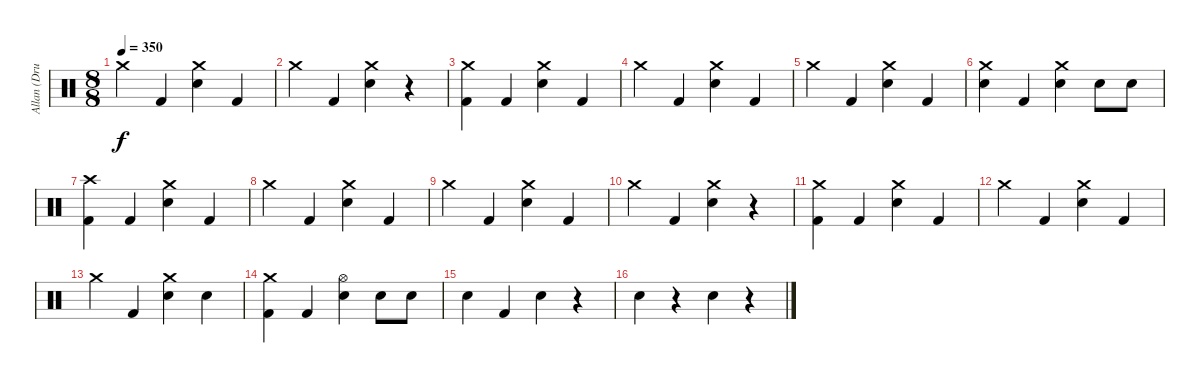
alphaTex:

\track ("Allan (Drums)" "Allan (Dru") {instrument percussion}
\staff {score}
\articulation defaults
\ts (8 8)
\tempo 350
\clef neutral
\ks c "Crash medium (hit)".4{dy f} "Kick (hit) 2".4
("Crash medium (hit)" "Snare (hit) 2").4 "Kick (hit) 2".4 |
"Crash medium (hit)".4 "Kick (hit) 2".4 ("Crash medium (hit)" "Snare (hit) 2").4 r.4 |
("Crash medium (hit)" "Kick (hit) 2").4 "Kick (hit) 2".4 ("Crash medium (hit)" "Snare (hit) 2").4 "Kick (hit) 2".4 |
"Crash medium (hit)".4 "Kick (hit) 2".4 ("Crash medium (hit)" "Snare (hit) 2").4 "Kick (hit) 2".4 |
"Crash medium (hit)".4 "Kick (hit) 2".4 ("Crash medium (hit)" "Snare (hit) 2").4 "Kick (hit) 2".4 |
("Crash medium (hit)" "Snare (hit) 2").4 "Kick (hit) 2".4 ("Crash medium (hit)" "Snare (hit) 2").4 "Snare (hit) 2".8 "Snare (hit) 2".8 |
("Crash high (hit)" "Kick (hit) 2").4 "Kick (hit) 2".4 ("Crash medium (hit)" "Snare (hit) 2").4 "Kick (hit) 2".4 |
"Crash medium (hit)".4 "Kick (hit) 2".4 ("Crash medium (hit)" "Snare (hit) 2").4 "Kick (hit) 2".4 |
"Crash medium (hit)".4 "Kick (hit) 2".4 ("Crash medium (hit)" "Snare (hit) 2").4 "Kick (hit) 2".4 |
"Crash medium (hit)".4 "Kick (hit) 2".4 ("Crash medium (hit)" "Snare (hit) 2").4 r.4 |
("Crash medium (hit)" "Kick (hit) 2").4 "Kick (hit) 2".4 ("Crash medium (hit)" "Snare (hit) 2").4 "Kick (hit) 2".4 |
"Crash medium (hit)".4 "Kick (hit) 2".4 ("Crash medium (hit)" "Snare (hit) 2").4 "Kick (hit) 2".4 |
"Crash medium (hit)".4 "Kick (hit) 2".4 ("Crash medium (hit)" "Snare (hit) 2").4 "Snare (hit) 2".4 |
("Crash medium (hit)" "Kick (hit) 2").4 "Kick (hit) 2".4 ("Hi-Hat (open)" "Snare (hit) 2").4 "Snare (hit) 2".8 "Snare (hit) 2".8 |
"Snare (hit) 2".4 "Kick (hit) 2".4 "Snare (hit) 2".4 r.4 |
"Snare (hit) 2".4 r.4 "Snare (hit) 2".4 r.4
